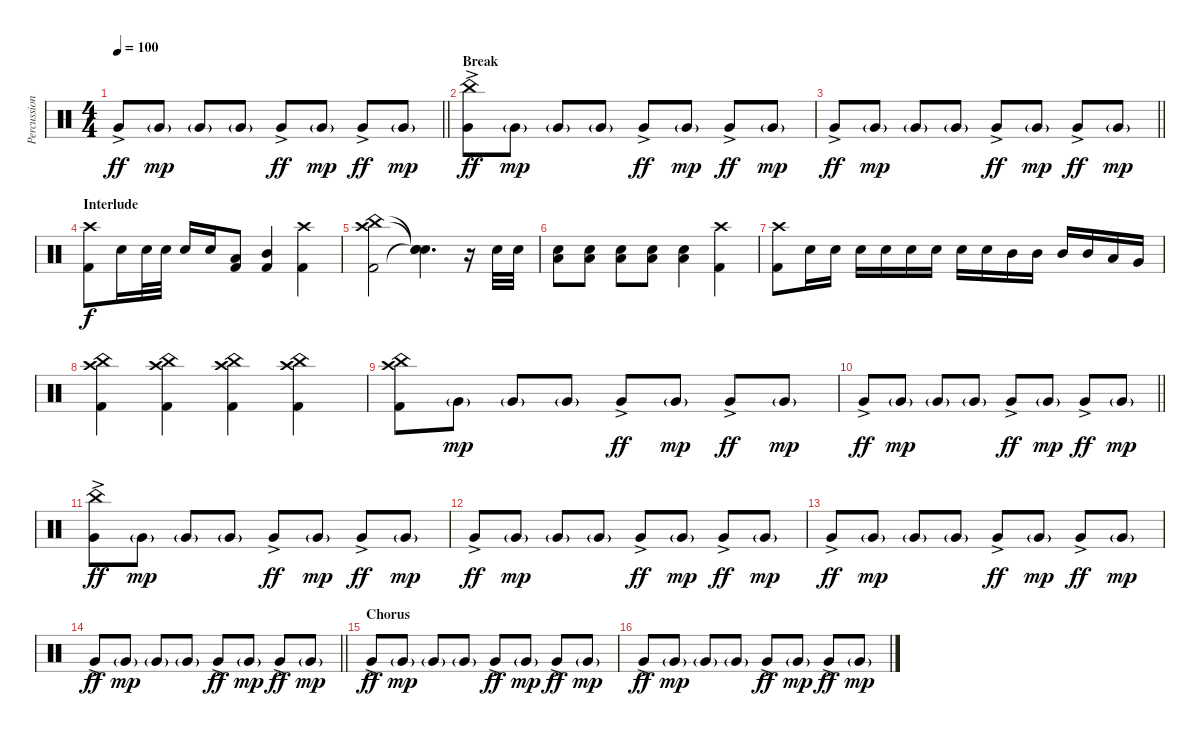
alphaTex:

\track ("Percussion" "Percussion") {instrument percussion}
\staff {score}
\articulation defaults
\ts (4 4)
\tempo 100
\clef neutral
\barLineRight lightlight
\ks c "Very Low Tom (hit)"{ac}.8{dy ff} "Very Low Tom (hit)"{g}.8{dy mp} "Very Low Tom (hit)"{g}.8 "Very Low Tom (hit)"{g}.8 "Very Low Tom (hit)"{ac}.8{dy ff} "Very Low Tom (hit)"{g}.8{dy mp} "Very Low Tom (hit)"{ac}.8{dy ff} "Very Low Tom (hit)"{g}.8{dy mp}
|
\section ("" "Break")
("China (hit)" "Very Low Tom (hit)"{ac}).8{dy ff} "Very Low Tom (hit)"{g}.8{dy mp} "Very Low Tom (hit)"{g}.8 "Very Low Tom (hit)"{g}.8 "Very Low Tom (hit)"{ac}.8{dy ff} "Very Low Tom (hit)"{g}.8{dy mp} "Very Low Tom (hit)"{ac}.8{dy ff} "Very Low Tom (hit)"{g}.8{dy mp} |
\barLineRight lightlight "Very Low Tom (hit)"{ac}.8{dy ff} "Very Low Tom (hit)"{g}.8{dy mp} "Very Low Tom (hit)"{g}.8 "Very Low Tom (hit)"{g}.8 "Very Low Tom (hit)"{ac}.8{dy ff} "Very Low Tom (hit)"{g}.8{dy mp} "Very Low Tom (hit)"{ac}.8{dy ff} "Very Low Tom (hit)"{g}.8{dy mp}
|
\section ("" "Interlude")
("Crash high (hit)" "Kick (hit) 2").8{dy f} "Snare (hit) 2".16 "Snare (hit) 2".32 "Snare (hit) 2".32 "Snare (hit) 2".16 "Snare (hit) 2".16 ("Low Tom (hit)" "Kick (hit) 2").8 ("Mid Tom (hit)" "Kick (hit) 2").4 ("Crash high (hit)" "Kick (hit) 2").4 |
("Crash high (hit)" "China (hit)" "Kick (hit) 2").2 ("Snare (hit)"{t} "Snare (hit)"{t} "Snare (hit)"{t}).4{d} r.16 "Snare (hit) 2".32 "Snare (hit) 2".32 |
("Low Tom (hit)" "Snare (hit) 2").8 ("Low Tom (hit)" "Snare (hit) 2").8 ("Low Tom (hit)" "Snare (hit) 2").8 ("Low Tom (hit)" "Snare (hit) 2").8 ("Low Tom (hit)" "Snare (hit) 2").4 ("Crash high (hit)" "Kick (hit) 2").4 |
("Crash high (hit)" "Kick (hit) 2").8 "Snare (hit) 2".16 "Snare (hit) 2".16 "Snare (hit) 2".16 "Snare (hit) 2".16 "Snare (hit) 2".16 "Snare (hit) 2".16 "Snare (hit) 2".16 "Snare (hit) 2".16 "Mid Tom (hit)".16 "Mid Tom (hit)".16 "Mid Tom (hit)".16 "Mid Tom (hit)".16 "Low Tom (hit)".16 "Very Low Tom (hit)".16 |
("Crash high (hit)" "China (hit)" "Kick (hit) 2").4 ("Crash high (hit)" "China (hit)" "Kick (hit) 2").4 ("Crash high (hit)" "China (hit)" "Kick (hit) 2").4 ("Crash high (hit)" "China (hit)" "Kick (hit) 2").4 |
("China (hit)" "Crash high (hit)" "Kick (hit) 2").8 "Very Low Tom (hit)"{g}.8{dy mp} "Very Low Tom (hit)"{g}.8 "Very Low Tom (hit)"{g}.8 "Very Low Tom (hit)"{ac}.8{dy ff} "Very Low Tom (hit)"{g}.8{dy mp} "Very Low Tom (hit)"{ac}.8{dy ff} "Very Low Tom (hit)"{g}.8{dy mp} |
\barLineRight lightlight "Very Low Tom (hit)"{ac}.8{dy ff} "Very Low Tom (hit)"{g}.8{dy mp} "Very Low Tom (hit)"{g}.8 "Very Low Tom (hit)"{g}.8 "Very Low Tom (hit)"{ac}.8{dy ff} "Very Low Tom (hit)"{g}.8{dy mp} "Very Low Tom (hit)"{ac}.8{dy ff} "Very Low Tom (hit)"{g}.8{dy mp}
|
("China (hit)" "Very Low Tom (hit)"{ac}).8{dy ff} "Very Low Tom (hit)"{g}.8{dy mp} "Very Low Tom (hit)"{g}.8 "Very Low Tom (hit)"{g}.8 "Very Low Tom (hit)"{ac}.8{dy ff} "Very Low Tom (hit)"{g}.8{dy mp} "Very Low Tom (hit)"{ac}.8{dy ff} "Very Low Tom (hit)"{g}.8{dy mp} |
"Very Low Tom (hit)"{ac}.8{dy ff} "Very Low Tom (hit)"{g}.8{dy mp} "Very Low Tom (hit)"{g}.8 "Very Low Tom (hit)"{g}.8 "Very Low Tom (hit)"{ac}.8{dy ff} "Very Low Tom (hit)"{g}.8{dy mp} "Very Low Tom (hit)"{ac}.8{dy ff} "Very Low Tom (hit)"{g}.8{dy mp} |
"Very Low Tom (hit)"{ac}.8{dy ff} "Very Low Tom (hit)"{g}.8{dy mp} "Very Low Tom (hit)"{g}.8 "Very Low Tom (hit)"{g}.8 "Very Low Tom (hit)"{ac}.8{dy ff} "Very Low Tom (hit)"{g}.8{dy mp} "Very Low Tom (hit)"{ac}.8{dy ff} "Very Low Tom (hit)"{g}.8{dy mp} |
\barLineRight lightlight "Very Low Tom (hit)"{ac}.8{dy ff} "Very Low Tom (hit)"{g}.8{dy mp} "Very Low Tom (hit)"{g}.8 "Very Low Tom (hit)"{g}.8 "Very Low Tom (hit)"{ac}.8{dy ff} "Very Low Tom (hit)"{g}.8{dy mp} "Very Low Tom (hit)"{ac}.8{dy ff} "Very Low Tom (hit)"{g}.8{dy mp}
|
\section ("" "Chorus")
"Very Low Tom (hit)"{ac}.8{dy ff} "Very Low Tom (hit)"{g}.8{dy mp} "Very Low Tom (hit)"{g}.8 "Very Low Tom (hit)"{g}.8 "Very Low Tom (hit)"{ac}.8{dy ff} "Very Low Tom (hit)"{g}.8{dy mp} "Very Low Tom (hit)"{ac}.8{dy ff} "Very Low Tom (hit)"{g}.8{dy mp} |
"Very Low Tom (hit)"{ac}.8{dy ff} "Very Low Tom (hit)"{g}.8{dy mp} "Very Low Tom (hit)"{g}.8 "Very Low Tom (hit)"{g}.8 "Very Low Tom (hit)"{ac}.8{dy ff} "Very Low Tom (hit)"{g}.8{dy mp} "Very Low Tom (hit)"{ac}.8{dy ff} "Very Low Tom (hit)"{g}.8{dy mp}
